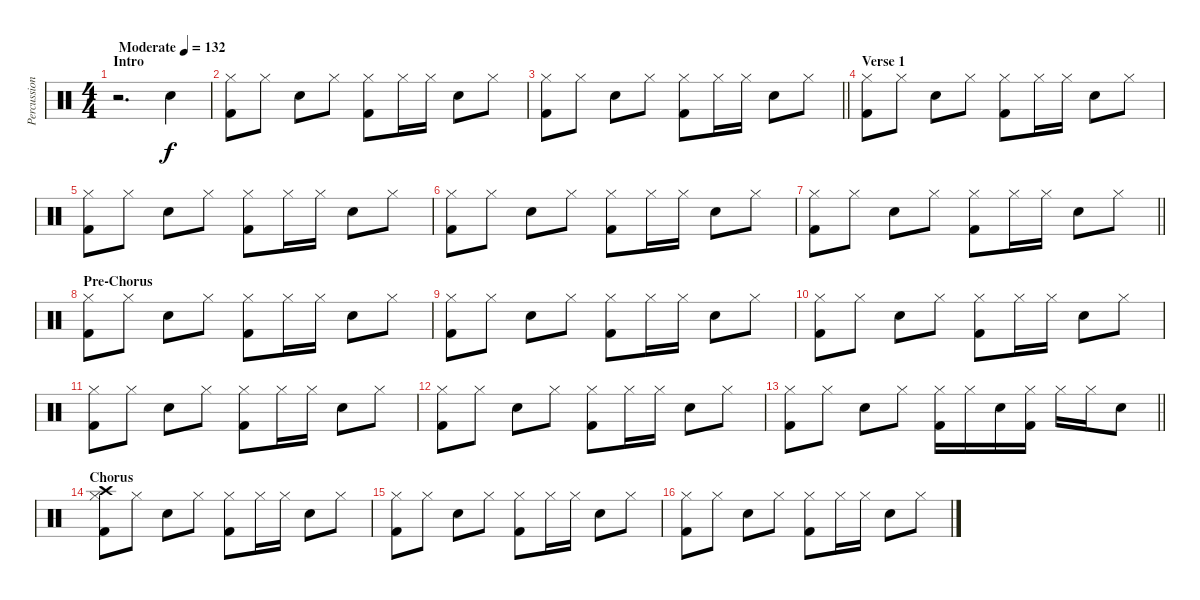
\track ("Percussion" "Percussion") {instrument percussion}
\staff {score}
\articulation defaults
\ts (4 4)
\section ("" "Intro")
\tempo (132 "Moderate")
\clef neutral
\ks c
r.2{d dy f} "Snare (hit) 2".4 |
("Hi-Hat (closed)" "Kick (hit) 2").8 "Hi-Hat (closed)".8 "Snare (hit) 2".8 "Hi-Hat (closed)".8 ("Hi-Hat (closed)" "Kick (hit) 2").8 "Hi-Hat (closed)".16 "Hi-Hat (closed)".16 "Snare (hit) 2".8 "Hi-Hat (closed)".8 |
\barLineRight lightlight
("Hi-Hat (closed)" "Kick (hit) 2").8 "Hi-Hat (closed)".8 "Snare (hit) 2".8 "Hi-Hat (closed)".8 ("Hi-Hat (closed)" "Kick (hit) 2").8 "Hi-Hat (closed)".16 "Hi-Hat (closed)".16 "Snare (hit) 2".8 "Hi-Hat (closed)".8 |
\section ("" "Verse 1")
("Hi-Hat (closed)" "Kick (hit) 2").8 "Hi-Hat (closed)".8 "Snare (hit) 2".8 "Hi-Hat (closed)".8 ("Hi-Hat (closed)" "Kick (hit) 2").8 "Hi-Hat (closed)".16 "Hi-Hat (closed)".16 "Snare (hit) 2".8 "Hi-Hat (closed)".8 |
("Hi-Hat (closed)" "Kick (hit) 2").8 "Hi-Hat (closed)".8 "Snare (hit) 2".8 "Hi-Hat (closed)".8 ("Hi-Hat (closed)" "Kick (hit) 2").8 "Hi-Hat (closed)".16 "Hi-Hat (closed)".16 "Snare (hit) 2".8 "Hi-Hat (closed)".8 |
("Hi-Hat (closed)" "Kick (hit) 2").8 "Hi-Hat (closed)".8 "Snare (hit) 2".8 "Hi-Hat (closed)".8 ("Hi-Hat (closed)" "Kick (hit) 2").8 "Hi-Hat (closed)".16 "Hi-Hat (closed)".16 "Snare (hit) 2".8 "Hi-Hat (closed)".8 |
\barLineRight lightlight
("Hi-Hat (closed)" "Kick (hit) 2").8 "Hi-Hat (closed)".8 "Snare (hit) 2".8 "Hi-Hat (closed)".8 ("Hi-Hat (closed)" "Kick (hit) 2").8 "Hi-Hat (closed)".16 "Hi-Hat (closed)".16 "Snare (hit) 2".8 "Hi-Hat (closed)".8 |
\section ("" "Pre-Chorus")
("Hi-Hat (closed)" "Kick (hit) 2").8 "Hi-Hat (closed)".8 "Snare (hit) 2".8 "Hi-Hat (closed)".8 ("Hi-Hat (closed)" "Kick (hit) 2").8 "Hi-Hat (closed)".16 "Hi-Hat (closed)".16 "Snare (hit) 2".8 "Hi-Hat (closed)".8 |
("Hi-Hat (closed)" "Kick (hit) 2").8 "Hi-Hat (closed)".8 "Snare (hit) 2".8 "Hi-Hat (closed)".8 ("Hi-Hat (closed)" "Kick (hit) 2").8 "Hi-Hat (closed)".16 "Hi-Hat (closed)".16 "Snare (hit) 2".8 "Hi-Hat (closed)".8 |
("Hi-Hat (closed)" "Kick (hit) 2").8 "Hi-Hat (closed)".8 "Snare (hit) 2".8 "Hi-Hat (closed)".8 ("Hi-Hat (closed)" "Kick (hit) 2").8 "Hi-Hat (closed)".16 "Hi-Hat (closed)".16 "Snare (hit) 2".8 "Hi-Hat (closed)".8 |
("Hi-Hat (closed)" "Kick (hit) 2").8 "Hi-Hat (closed)".8 "Snare (hit) 2".8 "Hi-Hat (closed)".8 ("Hi-Hat (closed)" "Kick (hit) 2").8 "Hi-Hat (closed)".16 "Hi-Hat (closed)".16 "Snare (hit) 2".8 "Hi-Hat (closed)".8 |
("Hi-Hat (closed)" "Kick (hit) 2").8 "Hi-Hat (closed)".8 "Snare (hit) 2".8 "Hi-Hat (closed)".8 ("Hi-Hat (closed)" "Kick (hit) 2").8 "Hi-Hat (closed)".16 "Hi-Hat (closed)".16 "Snare (hit) 2".8 "Hi-Hat (closed)".8 |
\barLineRight lightlight
("Hi-Hat (closed)" "Kick (hit) 2").8 "Hi-Hat (closed)".8 "Snare (hit) 2".8 "Hi-Hat (closed)".8 ("Hi-Hat (closed)" "Kick (hit) 2").16 "Hi-Hat (closed)".16 "Snare (hit) 2".16 ("Hi-Hat (closed)" "Kick (hit) 2").16 "Hi-Hat (closed)".16 "Hi-Hat (closed)".16 "Snare (hit) 2".8 |
\section ("" "Chorus")
("Crash high (hit)" "Hi-Hat (closed)" "Kick (hit) 2").8 "Hi-Hat (closed)".8 "Snare (hit) 2".8 "Hi-Hat (closed)".8 ("Hi-Hat (closed)" "Kick (hit) 2").8 "Hi-Hat (closed)".16 "Hi-Hat (closed)".16 "Snare (hit) 2".8 "Hi-Hat (closed)".8 |
("Hi-Hat (closed)" "Kick (hit) 2").8 "Hi-Hat (closed)".8 "Snare (hit) 2".8 "Hi-Hat (closed)".8 ("Hi-Hat (closed)" "Kick (hit) 2").8 "Hi-Hat (closed)".16 "Hi-Hat (closed)".16 "Snare (hit) 2".8 "Hi-Hat (closed)".8 |
("Hi-Hat (closed)" "Kick (hit) 2").8 "Hi-Hat (closed)".8 "Snare (hit) 2".8 "Hi-Hat (closed)".8 ("Hi-Hat (closed)" "Kick (hit) 2").8 "Hi-Hat (closed)".16 "Hi-Hat (closed)".16 "Snare (hit) 2".8 "Hi-Hat (closed)".8
